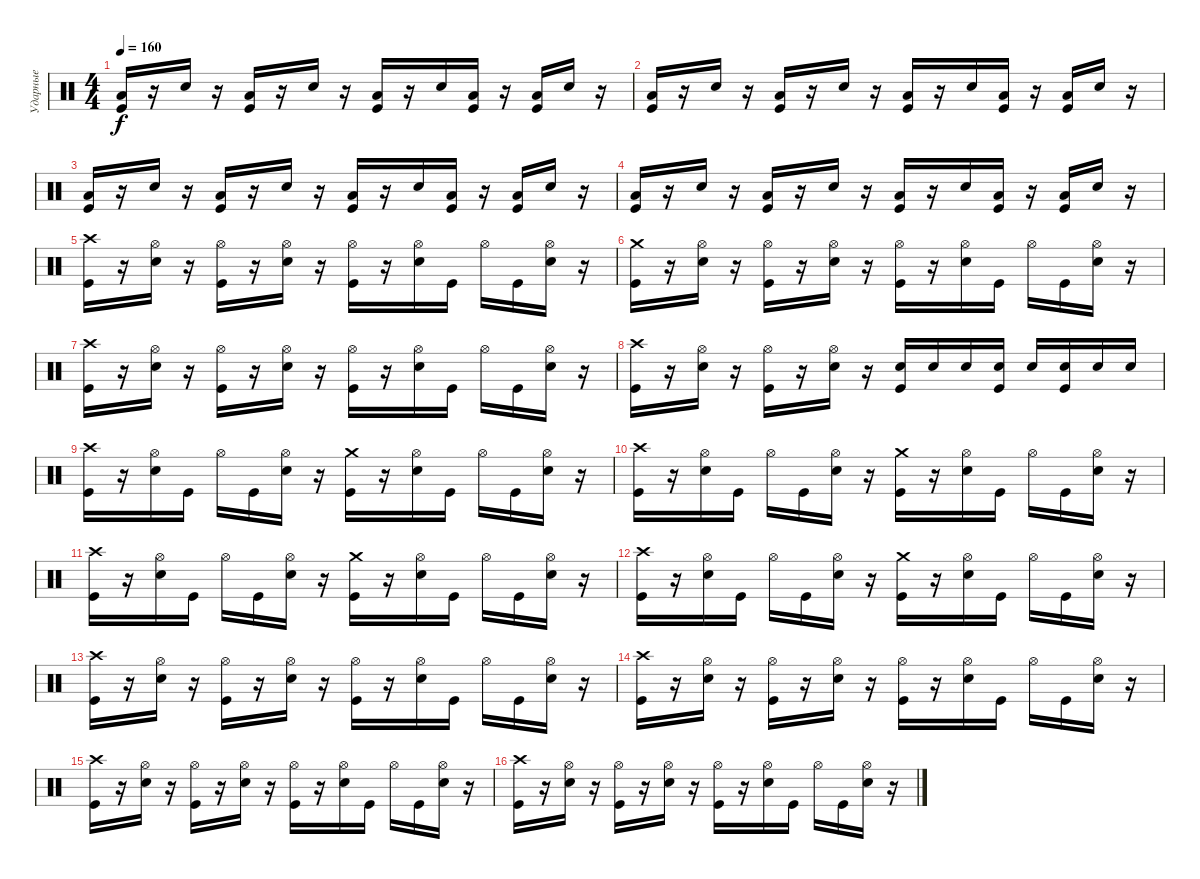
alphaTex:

\track ("Ударные" "Ударные") {instrument percussion}
\staff {score}
\articulation defaults
\ts (4 4)
\tempo 160
\clef neutral
\ks c
("Kick (hit)" "Low Floor Tom (hit)").16{dy f} r.16 "Snare (hit) 2".16 r.16 ("Kick (hit)" "Low Floor Tom (hit)").16 r.16 "Snare (hit) 2".16 r.16 ("Kick (hit)" "Low Floor Tom (hit)").16 r.16 "Snare (hit) 2".16 ("Kick (hit)" "Low Floor Tom (hit)").16 r.16 ("Kick (hit)" "Low Floor Tom (hit)").16 "Snare (hit) 2".16 r.16 |
("Kick (hit)" "Low Floor Tom (hit)").16 r.16 "Snare (hit) 2".16 r.16 ("Kick (hit)" "Low Floor Tom (hit)").16 r.16 "Snare (hit) 2".16 r.16 ("Kick (hit)" "Low Floor Tom (hit)").16 r.16 "Snare (hit) 2".16 ("Kick (hit)" "Low Floor Tom (hit)").16 r.16 ("Kick (hit)" "Low Floor Tom (hit)").16 "Snare (hit) 2".16 r.16 |
("Kick (hit)" "Low Floor Tom (hit)").16 r.16 "Snare (hit) 2".16 r.16 ("Kick (hit)" "Low Floor Tom (hit)").16 r.16 "Snare (hit) 2".16 r.16 ("Kick (hit)" "Low Floor Tom (hit)").16 r.16 "Snare (hit) 2".16 ("Kick (hit)" "Low Floor Tom (hit)").16 r.16 ("Kick (hit)" "Low Floor Tom (hit)").16 "Snare (hit) 2".16 r.16 |
("Kick (hit)" "Low Floor Tom (hit)").16 r.16 "Snare (hit) 2".16 r.16 ("Kick (hit)" "Low Floor Tom (hit)").16 r.16 "Snare (hit) 2".16 r.16 ("Kick (hit)" "Low Floor Tom (hit)").16 r.16 "Snare (hit) 2".16 ("Kick (hit)" "Low Floor Tom (hit)").16 r.16 ("Kick (hit)" "Low Floor Tom (hit)").16 "Snare (hit) 2".16 r.16 |
("Kick (hit)" "Crash high (hit)").16 r.16 ("Snare (hit) 2" "Hi-Hat (open)").16 r.16 ("Kick (hit)" "Hi-Hat (open)").16 r.16 ("Snare (hit) 2" "Hi-Hat (open)").16 r.16 ("Kick (hit)" "Hi-Hat (open)").16 r.16 ("Snare (hit) 2" "Hi-Hat (open)").16 "Kick (hit)".16 "Hi-Hat (open)".16 "Kick (hit)".16 ("Snare (hit) 2" "Hi-Hat (open)").16 r.16 |
("Kick (hit)" "Crash medium (hit)").16 r.16 ("Snare (hit) 2" "Hi-Hat (open)").16 r.16 ("Kick (hit)" "Hi-Hat (open)").16 r.16 ("Snare (hit) 2" "Hi-Hat (open)").16 r.16 ("Kick (hit)" "Hi-Hat (open)").16 r.16 ("Snare (hit) 2" "Hi-Hat (open)").16 "Kick (hit)".16 "Hi-Hat (open)".16 "Kick (hit)".16 ("Snare (hit) 2" "Hi-Hat (open)").16 r.16 |
("Kick (hit)" "Crash high (hit)").16 r.16 ("Snare (hit) 2" "Hi-Hat (open)").16 r.16 ("Kick (hit)" "Hi-Hat (open)").16 r.16 ("Snare (hit) 2" "Hi-Hat (open)").16 r.16 ("Kick (hit)" "Hi-Hat (open)").16 r.16 ("Snare (hit) 2" "Hi-Hat (open)").16 "Kick (hit)".16 "Hi-Hat (open)".16 "Kick (hit)".16 ("Snare (hit) 2" "Hi-Hat (open)").16 r.16 |
("Kick (hit)" "Crash high (hit)").16 r.16 ("Snare (hit) 2" "Hi-Hat (open)").16 r.16 ("Kick (hit)" "Hi-Hat (open)").16 r.16 ("Snare (hit) 2" "Hi-Hat (open)").16 r.16 ("Kick (hit)" "Snare (hit) 2").16 "Snare (hit) 2".16 "Snare (hit) 2".16 ("Kick (hit)" "Snare (hit) 2").16 "Snare (hit) 2".16 ("Kick (hit)" "Snare (hit) 2").16 "Snare (hit) 2".16 "Snare (hit) 2".16 |
("Kick (hit)" "Crash high (hit)").16 r.16 ("Snare (hit) 2" "Hi-Hat (open)").16 "Kick (hit)".16 "Hi-Hat (open)".16 "Kick (hit)".16 ("Snare (hit) 2" "Hi-Hat (open)").16 r.16 ("Kick (hit)" "Crash medium (hit)").16 r.16 ("Snare (hit) 2" "Hi-Hat (open)").16 "Kick (hit)".16 "Hi-Hat (open)".16 "Kick (hit)".16 ("Snare (hit) 2" "Hi-Hat (open)").16 r.16 |
("Kick (hit)" "Crash high (hit)").16 r.16 ("Snare (hit) 2" "Hi-Hat (open)").16 "Kick (hit)".16 "Hi-Hat (open)".16 "Kick (hit)".16 ("Snare (hit) 2" "Hi-Hat (open)").16 r.16 ("Kick (hit)" "Crash medium (hit)").16 r.16 ("Snare (hit) 2" "Hi-Hat (open)").16 "Kick (hit)".16 "Hi-Hat (open)".16 "Kick (hit)".16 ("Snare (hit) 2" "Hi-Hat (open)").16 r.16 |
("Kick (hit)" "Crash high (hit)").16 r.16 ("Snare (hit) 2" "Hi-Hat (open)").16 "Kick (hit)".16 "Hi-Hat (open)".16 "Kick (hit)".16 ("Snare (hit) 2" "Hi-Hat (open)").16 r.16 ("Kick (hit)" "Crash medium (hit)").16 r.16 ("Snare (hit) 2" "Hi-Hat (open)").16 "Kick (hit)".16 "Hi-Hat (open)".16 "Kick (hit)".16 ("Snare (hit) 2" "Hi-Hat (open)").16 r.16 |
("Kick (hit)" "Crash high (hit)").16 r.16 ("Snare (hit) 2" "Hi-Hat (open)").16 "Kick (hit)".16 "Hi-Hat (open)".16 "Kick (hit)".16 ("Snare (hit) 2" "Hi-Hat (open)").16 r.16 ("Kick (hit)" "Crash medium (hit)").16 r.16 ("Snare (hit) 2" "Hi-Hat (open)").16 "Kick (hit)".16 "Hi-Hat (open)".16 "Kick (hit)".16 ("Snare (hit) 2" "Hi-Hat (open)").16 r.16 |
("Kick (hit)" "Crash high (hit)").16 r.16 ("Snare (hit) 2" "Hi-Hat (open)").16 r.16 ("Kick (hit)" "Hi-Hat (open)").16 r.16 ("Snare (hit) 2" "Hi-Hat (open)").16 r.16 ("Kick (hit)" "Hi-Hat (open)").16 r.16 ("Snare (hit) 2" "Hi-Hat (open)").16 "Kick (hit)".16 "Hi-Hat (open)".16 "Kick (hit)".16 ("Snare (hit) 2" "Hi-Hat (open)").16 r.16 |
("Kick (hit)" "Crash high (hit)").16 r.16 ("Snare (hit) 2" "Hi-Hat (open)").16 r.16 ("Kick (hit)" "Hi-Hat (open)").16 r.16 ("Snare (hit) 2" "Hi-Hat (open)").16 r.16 ("Kick (hit)" "Hi-Hat (open)").16 r.16 ("Snare (hit) 2" "Hi-Hat (open)").16 "Kick (hit)".16 "Hi-Hat (open)".16 "Kick (hit)".16 ("Snare (hit) 2" "Hi-Hat (open)").16 r.16 |
("Kick (hit)" "Crash high (hit)").16 r.16 ("Snare (hit) 2" "Hi-Hat (open)").16 r.16 ("Kick (hit)" "Hi-Hat (open)").16 r.16 ("Snare (hit) 2" "Hi-Hat (open)").16 r.16 ("Kick (hit)" "Hi-Hat (open)").16 r.16 ("Snare (hit) 2" "Hi-Hat (open)").16 "Kick (hit)".16 "Hi-Hat (open)".16 "Kick (hit)".16 ("Snare (hit) 2" "Hi-Hat (open)").16 r.16 |
("Kick (hit)" "Crash high (hit)").16 r.16 ("Snare (hit) 2" "Hi-Hat (open)").16 r.16 ("Kick (hit)" "Hi-Hat (open)").16 r.16 ("Snare (hit) 2" "Hi-Hat (open)").16 r.16 ("Kick (hit)" "Hi-Hat (open)").16 r.16 ("Snare (hit) 2" "Hi-Hat (open)").16 "Kick (hit)".16 "Hi-Hat (open)".16 "Kick (hit)".16 ("Snare (hit) 2" "Hi-Hat (open)").16 r.16
